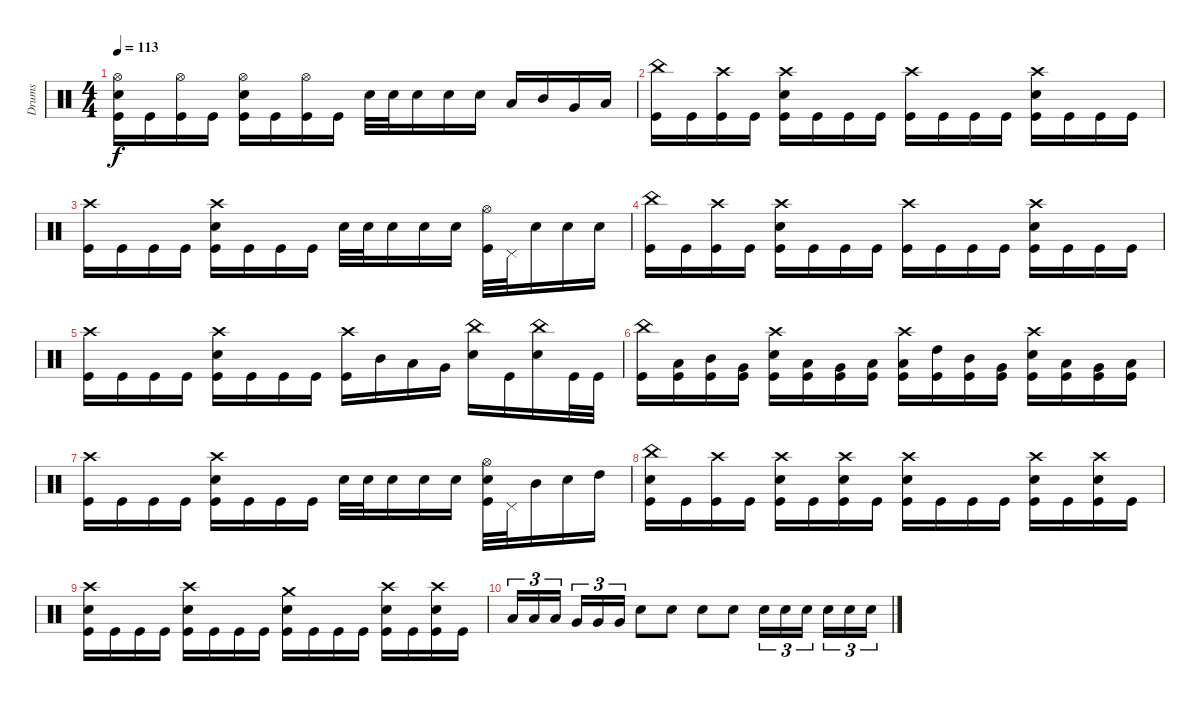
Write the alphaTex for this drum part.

\track ("Drums" "Drums") {instrument percussion}
\staff {score}
\articulation defaults
\ts (4 4)
\tempo 113
\clef neutral
\ks c
("Hi-Hat (open)" "Electric Snare (hit)" "Kick (hit)").16{dy f} "Kick (hit)".16 ("Hi-Hat (open)" "Kick (hit)").16 "Kick (hit)".16 ("Hi-Hat (open)" "Electric Snare (hit)" "Kick (hit)").16 "Kick (hit)".16 ("Hi-Hat (open)" "Kick (hit)").16 "Kick (hit)".16 "Electric Snare (hit)".32 "Electric Snare (hit)".32 "Electric Snare (hit)".16 "Electric Snare (hit)".16 "Electric Snare (hit)".16 "Low Tom (hit)".16 "Mid Tom (hit)".16 "Very Low Tom (hit)".16 "Low Floor Tom (hit)".16 |
("China (hit)" "Kick (hit)").16 "Kick (hit)".16 ("Crash high (hit)" "Kick (hit)").16 "Kick (hit)".16 ("Crash high (hit)" "Electric Snare (hit)" "Kick (hit)").16 "Kick (hit)".16 "Kick (hit)".16 "Kick (hit)".16 ("Crash high (hit)" "Kick (hit)").16 "Kick (hit)".16 "Kick (hit)".16 "Kick (hit)".16 ("Crash high (hit)" "Electric Snare (hit)" "Kick (hit)").16 "Kick (hit)".16 "Kick (hit)".16 "Kick (hit)".16 |
("Crash high (hit)" "Kick (hit)").16 "Kick (hit)".16 "Kick (hit)".16 "Kick (hit)".16 ("Crash high (hit)" "Electric Snare (hit)" "Kick (hit)").16 "Kick (hit)".16 "Kick (hit)".16 "Kick (hit)".16 "Electric Snare (hit)".32 "Electric Snare (hit)".32 "Electric Snare (hit)".16 "Electric Snare (hit)".16 "Electric Snare (hit)".16 ("Hi-Hat (open)" "Kick (hit)").32 "Pedal Hi-Hat (hit)".32 "Electric Snare (hit)".16 "Electric Snare (hit)".16 "Electric Snare (hit)".16 |
("China (hit)" "Kick (hit)").16 "Kick (hit)".16 ("Crash high (hit)" "Kick (hit)").16 "Kick (hit)".16 ("Crash high (hit)" "Electric Snare (hit)" "Kick (hit)").16 "Kick (hit)".16 "Kick (hit)".16 "Kick (hit)".16 ("Crash high (hit)" "Kick (hit)").16 "Kick (hit)".16 "Kick (hit)".16 "Kick (hit)".16 ("Crash high (hit)" "Electric Snare (hit)" "Kick (hit)").16 "Kick (hit)".16 "Kick (hit)".16 "Kick (hit)".16 |
("Crash high (hit)" "Kick (hit)").16 "Kick (hit)".16 "Kick (hit)".16 "Kick (hit)".16 ("Crash high (hit)" "Electric Snare (hit)" "Kick (hit)").16 "Kick (hit)".16 "Kick (hit)".16 "Kick (hit)".16 ("Crash high (hit)" "Kick (hit)").16 "Mid Tom (hit)".16 "Low Tom (hit)".16 "Very Low Tom (hit)".16 ("China (hit)" "Electric Snare (hit)").16 "Kick (hit)".16 ("China (hit)" "Electric Snare (hit)").16 "Kick (hit)".32 "Kick (hit)".32 |
("China (hit)" "Kick (hit)").16 ("Low Tom (hit)" "Kick (hit)").16 ("Mid Tom (hit)" "Kick (hit)").16 ("Very Low Tom (hit)" "Kick (hit)").16 ("Crash high (hit)" "Electric Snare (hit)" "Kick (hit)").16 ("Low Tom (hit)" "Kick (hit)").16 ("Very Low Tom (hit)" "Kick (hit)").16 ("Low Floor Tom (hit)" "Kick (hit)").16 ("Crash high (hit)" "Low Tom (hit)" "Kick (hit)").16 ("High Tom (hit)" "Kick (hit)").16 ("Mid Tom (hit)" "Kick (hit)").16 ("Very Low Tom (hit)" "Kick (hit)").16 ("Crash high (hit)" "Electric Snare (hit)" "Kick (hit)").16 ("Low Tom (hit)" "Kick (hit)").16 ("Very Low Tom (hit)" "Kick (hit)").16 ("Low Floor Tom (hit)" "Kick (hit)").16 |
("Crash high (hit)" "Kick (hit)").16 "Kick (hit)".16 "Kick (hit)".16 "Kick (hit)".16 ("Crash high (hit)" "Electric Snare (hit)" "Kick (hit)").16 "Kick (hit)".16 "Kick (hit)".16 "Kick (hit)".16 "Electric Snare (hit)".32 "Electric Snare (hit)".32 "Electric Snare (hit)".16 "Electric Snare (hit)".16 "Electric Snare (hit)".16 ("Hi-Hat (open)" "Electric Snare (hit)" "Kick (hit)").32 "Pedal Hi-Hat (hit)".32 "Mid Tom (hit)".16 "Electric Snare (hit)".16 "High Tom (hit)".16 |
("China (hit)" "Electric Snare (hit)" "Kick (hit)").16 "Kick (hit)".16 ("Crash high (hit)" "Kick (hit)").16 "Kick (hit)".16 ("Crash high (hit)" "Electric Snare (hit)" "Kick (hit)").16 "Kick (hit)".16 ("Crash high (hit)" "Electric Snare (hit)" "Kick (hit)").16 "Kick (hit)".16 ("Crash high (hit)" "Electric Snare (hit)" "Kick (hit)").16 "Kick (hit)".16 "Kick (hit)".16 "Kick (hit)".16 ("Crash high (hit)" "Electric Snare (hit)" "Kick (hit)").16 "Kick (hit)".16 ("Crash high (hit)" "Electric Snare (hit)" "Kick (hit)").16 "Kick (hit)".16 |
("Crash high (hit)" "Electric Snare (hit)" "Kick (hit)").16 "Kick (hit)".16 "Kick (hit)".16 "Kick (hit)".16 ("Crash high (hit)" "Electric Snare (hit)" "Kick (hit)").16 "Kick (hit)".16 "Kick (hit)".16 "Kick (hit)".16 ("Crash medium (hit)" "Electric Snare (hit)" "Kick (hit)").16 "Kick (hit)".16 "Kick (hit)".16 "Kick (hit)".16 ("Crash high (hit)" "Electric Snare (hit)" "Kick (hit)").16 "Kick (hit)".16 ("Crash high (hit)" "Electric Snare (hit)" "Kick (hit)").16 "Kick (hit)".16 |
"Low Tom (hit)".16{tu (3 2)} "Low Tom (hit)".16{tu (3 2)} "Low Tom (hit)".16{tu (3 2) beam splitsecondary} "Very Low Tom (hit)".16{tu (3 2)} "Very Low Tom (hit)".16{tu (3 2)} "Very Low Tom (hit)".16{tu (3 2)} "Electric Snare (hit)".8 "Electric Snare (hit)".8 "Electric Snare (hit)".8 "Electric Snare (hit)".8 "Electric Snare (hit)".16{tu (3 2)} "Electric Snare (hit)".16{tu (3 2)} "Electric Snare (hit)".16{tu (3 2) beam splitsecondary} "Electric Snare (hit)".16{tu (3 2)} "Electric Snare (hit)".16{tu (3 2)} "Electric Snare (hit)".16{tu (3 2)}
